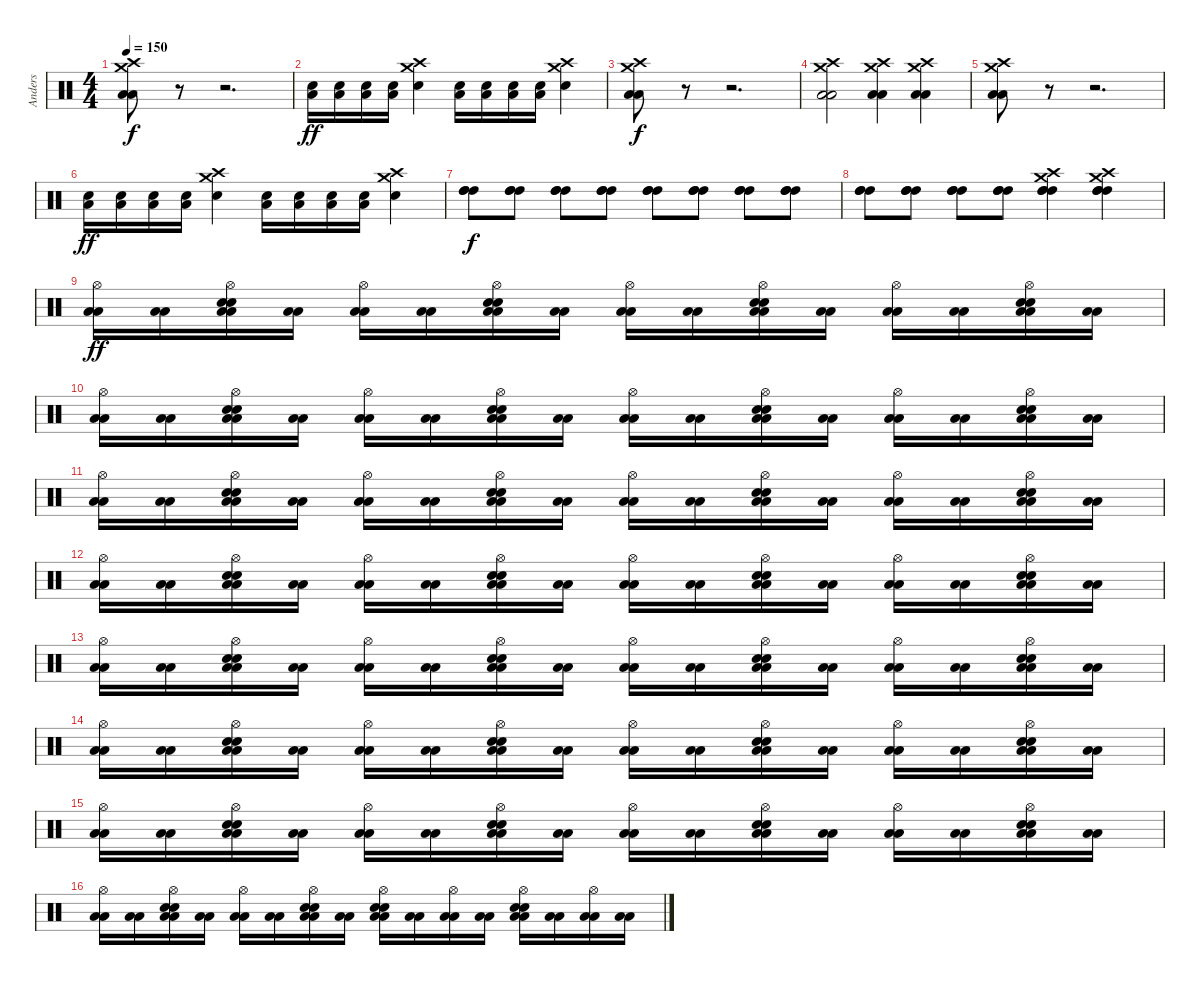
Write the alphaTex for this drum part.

\track ("Anders" "Anders") {instrument percussion}
\staff {score}
\articulation defaults
\ts (4 4)
\tempo 150
\clef neutral
\ks c
("Low Floor Tom (hit)" "Low Floor Tom (hit)" "Crash medium (hit)" "Crash high (hit)").8{dy f} r.8 r.2{d} |
("Electric Snare (hit)" "Low Floor Tom (hit)").16{dy ff} ("Electric Snare (hit)" "Low Floor Tom (hit)").16 ("Electric Snare (hit)" "Low Floor Tom (hit)").16 ("Electric Snare (hit)" "Low Floor Tom (hit)").16 ("Crash high (hit)" "Crash medium (hit)" "Electric Snare (hit)").4 ("Electric Snare (hit)" "Low Floor Tom (hit)").16 ("Electric Snare (hit)" "Low Floor Tom (hit)").16 ("Electric Snare (hit)" "Low Floor Tom (hit)").16 ("Electric Snare (hit)" "Low Floor Tom (hit)").16 ("Crash high (hit)" "Crash medium (hit)" "Electric Snare (hit)").4 |
("Low Floor Tom (hit)" "Low Floor Tom (hit)" "Crash medium (hit)" "Crash high (hit)").8{dy f} r.8 r.2{d} |
("Crash medium (hit)" "Crash high (hit)" "Low Floor Tom (hit)" "Low Floor Tom (hit)").2 ("Crash medium (hit)" "Crash high (hit)" "Low Floor Tom (hit)" "Low Floor Tom (hit)").4 ("Crash medium (hit)" "Crash high (hit)" "Low Floor Tom (hit)" "Low Floor Tom (hit)").4 |
("Low Floor Tom (hit)" "Low Floor Tom (hit)" "Crash medium (hit)" "Crash high (hit)").8 r.8 r.2{d} |
("Electric Snare (hit)" "Low Floor Tom (hit)").16{dy ff} ("Electric Snare (hit)" "Low Floor Tom (hit)").16 ("Electric Snare (hit)" "Low Floor Tom (hit)").16 ("Electric Snare (hit)" "Low Floor Tom (hit)").16 ("Crash high (hit)" "Crash medium (hit)" "Electric Snare (hit)").4 ("Electric Snare (hit)" "Low Floor Tom (hit)").16 ("Electric Snare (hit)" "Low Floor Tom (hit)").16 ("Electric Snare (hit)" "Low Floor Tom (hit)").16 ("Electric Snare (hit)" "Low Floor Tom (hit)").16 ("Crash high (hit)" "Crash medium (hit)" "Electric Snare (hit)").4 |
("High Tom (hit)" "High Tom (hit)" "High Tom (hit)").8{dy f} ("High Tom (hit)" "High Tom (hit)" "High Tom (hit)").8 ("High Tom (hit)" "High Tom (hit)" "High Tom (hit)").8 ("High Tom (hit)" "High Tom (hit)" "High Tom (hit)").8 ("High Tom (hit)" "High Tom (hit)" "High Tom (hit)").8 ("High Tom (hit)" "High Tom (hit)" "High Tom (hit)").8 ("High Tom (hit)" "High Tom (hit)" "High Tom (hit)").8 ("High Tom (hit)" "High Tom (hit)" "High Tom (hit)").8 |
("High Tom (hit)" "High Tom (hit)" "High Tom (hit)").8 ("High Tom (hit)" "High Tom (hit)" "High Tom (hit)").8 ("High Tom (hit)" "High Tom (hit)" "High Tom (hit)").8 ("High Tom (hit)" "High Tom (hit)" "High Tom (hit)").8 ("Crash high (hit)" "Crash medium (hit)" "High Tom (hit)" "High Tom (hit)" "High Tom (hit)").4 ("Crash medium (hit)" "Crash high (hit)" "High Tom (hit)" "High Tom (hit)" "High Tom (hit)").4 |
("Hi-Hat (open)" "Low Floor Tom (hit)" "Low Floor Tom (hit)").16{dy ff} ("Low Floor Tom (hit)" "Low Floor Tom (hit)").16 ("Hi-Hat (open)" "Electric Snare (hit)" "Electric Snare (hit)" "Low Floor Tom (hit)" "Low Floor Tom (hit)").16 ("Low Floor Tom (hit)" "Low Floor Tom (hit)").16 ("Hi-Hat (open)" "Low Floor Tom (hit)" "Low Floor Tom (hit)").16 ("Low Floor Tom (hit)" "Low Floor Tom (hit)").16 ("Hi-Hat (open)" "Electric Snare (hit)" "Electric Snare (hit)" "Low Floor Tom (hit)" "Low Floor Tom (hit)").16 ("Low Floor Tom (hit)" "Low Floor Tom (hit)").16 ("Hi-Hat (open)" "Low Floor Tom (hit)" "Low Floor Tom (hit)").16 ("Low Floor Tom (hit)" "Low Floor Tom (hit)").16 ("Hi-Hat (open)" "Electric Snare (hit)" "Electric Snare (hit)" "Low Floor Tom (hit)" "Low Floor Tom (hit)").16 ("Low Floor Tom (hit)" "Low Floor Tom (hit)").16 ("Hi-Hat (open)" "Low Floor Tom (hit)" "Low Floor Tom (hit)").16 ("Low Floor Tom (hit)" "Low Floor Tom (hit)").16 ("Hi-Hat (open)" "Electric Snare (hit)" "Electric Snare (hit)" "Low Floor Tom (hit)" "Low Floor Tom (hit)").16 ("Low Floor Tom (hit)" "Low Floor Tom (hit)").16 |
("Hi-Hat (open)" "Low Floor Tom (hit)" "Low Floor Tom (hit)").16 ("Low Floor Tom (hit)" "Low Floor Tom (hit)").16 ("Hi-Hat (open)" "Electric Snare (hit)" "Electric Snare (hit)" "Low Floor Tom (hit)" "Low Floor Tom (hit)").16 ("Low Floor Tom (hit)" "Low Floor Tom (hit)").16 ("Hi-Hat (open)" "Low Floor Tom (hit)" "Low Floor Tom (hit)").16 ("Low Floor Tom (hit)" "Low Floor Tom (hit)").16 ("Hi-Hat (open)" "Electric Snare (hit)" "Electric Snare (hit)" "Low Floor Tom (hit)" "Low Floor Tom (hit)").16 ("Low Floor Tom (hit)" "Low Floor Tom (hit)").16 ("Hi-Hat (open)" "Low Floor Tom (hit)" "Low Floor Tom (hit)").16 ("Low Floor Tom (hit)" "Low Floor Tom (hit)").16 ("Hi-Hat (open)" "Electric Snare (hit)" "Electric Snare (hit)" "Low Floor Tom (hit)" "Low Floor Tom (hit)").16 ("Low Floor Tom (hit)" "Low Floor Tom (hit)").16 ("Hi-Hat (open)" "Low Floor Tom (hit)" "Low Floor Tom (hit)").16 ("Low Floor Tom (hit)" "Low Floor Tom (hit)").16 ("Hi-Hat (open)" "Electric Snare (hit)" "Electric Snare (hit)" "Low Floor Tom (hit)" "Low Floor Tom (hit)").16 ("Low Floor Tom (hit)" "Low Floor Tom (hit)").16 |
("Hi-Hat (open)" "Low Floor Tom (hit)" "Low Floor Tom (hit)").16 ("Low Floor Tom (hit)" "Low Floor Tom (hit)").16 ("Hi-Hat (open)" "Electric Snare (hit)" "Electric Snare (hit)" "Low Floor Tom (hit)" "Low Floor Tom (hit)").16 ("Low Floor Tom (hit)" "Low Floor Tom (hit)").16 ("Hi-Hat (open)" "Low Floor Tom (hit)" "Low Floor Tom (hit)").16 ("Low Floor Tom (hit)" "Low Floor Tom (hit)").16 ("Hi-Hat (open)" "Electric Snare (hit)" "Electric Snare (hit)" "Low Floor Tom (hit)" "Low Floor Tom (hit)").16 ("Low Floor Tom (hit)" "Low Floor Tom (hit)").16 ("Hi-Hat (open)" "Low Floor Tom (hit)" "Low Floor Tom (hit)").16 ("Low Floor Tom (hit)" "Low Floor Tom (hit)").16 ("Hi-Hat (open)" "Electric Snare (hit)" "Electric Snare (hit)" "Low Floor Tom (hit)" "Low Floor Tom (hit)").16 ("Low Floor Tom (hit)" "Low Floor Tom (hit)").16 ("Hi-Hat (open)" "Low Floor Tom (hit)" "Low Floor Tom (hit)").16 ("Low Floor Tom (hit)" "Low Floor Tom (hit)").16 ("Hi-Hat (open)" "Electric Snare (hit)" "Electric Snare (hit)" "Low Floor Tom (hit)" "Low Floor Tom (hit)").16 ("Low Floor Tom (hit)" "Low Floor Tom (hit)").16 |
("Hi-Hat (open)" "Low Floor Tom (hit)" "Low Floor Tom (hit)").16 ("Low Floor Tom (hit)" "Low Floor Tom (hit)").16 ("Hi-Hat (open)" "Electric Snare (hit)" "Electric Snare (hit)" "Low Floor Tom (hit)" "Low Floor Tom (hit)").16 ("Low Floor Tom (hit)" "Low Floor Tom (hit)").16 ("Hi-Hat (open)" "Low Floor Tom (hit)" "Low Floor Tom (hit)").16 ("Low Floor Tom (hit)" "Low Floor Tom (hit)").16 ("Hi-Hat (open)" "Electric Snare (hit)" "Electric Snare (hit)" "Low Floor Tom (hit)" "Low Floor Tom (hit)").16 ("Low Floor Tom (hit)" "Low Floor Tom (hit)").16 ("Hi-Hat (open)" "Low Floor Tom (hit)" "Low Floor Tom (hit)").16 ("Low Floor Tom (hit)" "Low Floor Tom (hit)").16 ("Hi-Hat (open)" "Electric Snare (hit)" "Electric Snare (hit)" "Low Floor Tom (hit)" "Low Floor Tom (hit)").16 ("Low Floor Tom (hit)" "Low Floor Tom (hit)").16 ("Hi-Hat (open)" "Low Floor Tom (hit)" "Low Floor Tom (hit)").16 ("Low Floor Tom (hit)" "Low Floor Tom (hit)").16 ("Hi-Hat (open)" "Electric Snare (hit)" "Electric Snare (hit)" "Low Floor Tom (hit)" "Low Floor Tom (hit)").16 ("Low Floor Tom (hit)" "Low Floor Tom (hit)").16 |
("Hi-Hat (open)" "Low Floor Tom (hit)" "Low Floor Tom (hit)").16 ("Low Floor Tom (hit)" "Low Floor Tom (hit)").16 ("Hi-Hat (open)" "Electric Snare (hit)" "Electric Snare (hit)" "Low Floor Tom (hit)" "Low Floor Tom (hit)").16 ("Low Floor Tom (hit)" "Low Floor Tom (hit)").16 ("Hi-Hat (open)" "Low Floor Tom (hit)" "Low Floor Tom (hit)").16 ("Low Floor Tom (hit)" "Low Floor Tom (hit)").16 ("Hi-Hat (open)" "Electric Snare (hit)" "Electric Snare (hit)" "Low Floor Tom (hit)" "Low Floor Tom (hit)").16 ("Low Floor Tom (hit)" "Low Floor Tom (hit)").16 ("Hi-Hat (open)" "Low Floor Tom (hit)" "Low Floor Tom (hit)").16 ("Low Floor Tom (hit)" "Low Floor Tom (hit)").16 ("Hi-Hat (open)" "Electric Snare (hit)" "Electric Snare (hit)" "Low Floor Tom (hit)" "Low Floor Tom (hit)").16 ("Low Floor Tom (hit)" "Low Floor Tom (hit)").16 ("Hi-Hat (open)" "Low Floor Tom (hit)" "Low Floor Tom (hit)").16 ("Low Floor Tom (hit)" "Low Floor Tom (hit)").16 ("Hi-Hat (open)" "Electric Snare (hit)" "Electric Snare (hit)" "Low Floor Tom (hit)" "Low Floor Tom (hit)").16 ("Low Floor Tom (hit)" "Low Floor Tom (hit)").16 |
("Hi-Hat (open)" "Low Floor Tom (hit)" "Low Floor Tom (hit)").16 ("Low Floor Tom (hit)" "Low Floor Tom (hit)").16 ("Hi-Hat (open)" "Electric Snare (hit)" "Electric Snare (hit)" "Low Floor Tom (hit)" "Low Floor Tom (hit)").16 ("Low Floor Tom (hit)" "Low Floor Tom (hit)").16 ("Hi-Hat (open)" "Low Floor Tom (hit)" "Low Floor Tom (hit)").16 ("Low Floor Tom (hit)" "Low Floor Tom (hit)").16 ("Hi-Hat (open)" "Electric Snare (hit)" "Electric Snare (hit)" "Low Floor Tom (hit)" "Low Floor Tom (hit)").16 ("Low Floor Tom (hit)" "Low Floor Tom (hit)").16 ("Hi-Hat (open)" "Low Floor Tom (hit)" "Low Floor Tom (hit)").16 ("Low Floor Tom (hit)" "Low Floor Tom (hit)").16 ("Hi-Hat (open)" "Electric Snare (hit)" "Electric Snare (hit)" "Low Floor Tom (hit)" "Low Floor Tom (hit)").16 ("Low Floor Tom (hit)" "Low Floor Tom (hit)").16 ("Hi-Hat (open)" "Low Floor Tom (hit)" "Low Floor Tom (hit)").16 ("Low Floor Tom (hit)" "Low Floor Tom (hit)").16 ("Hi-Hat (open)" "Electric Snare (hit)" "Electric Snare (hit)" "Low Floor Tom (hit)" "Low Floor Tom (hit)").16 ("Low Floor Tom (hit)" "Low Floor Tom (hit)").16 |
("Hi-Hat (open)" "Low Floor Tom (hit)" "Low Floor Tom (hit)").16 ("Low Floor Tom (hit)" "Low Floor Tom (hit)").16 ("Hi-Hat (open)" "Electric Snare (hit)" "Electric Snare (hit)" "Low Floor Tom (hit)" "Low Floor Tom (hit)").16 ("Low Floor Tom (hit)" "Low Floor Tom (hit)").16 ("Hi-Hat (open)" "Low Floor Tom (hit)" "Low Floor Tom (hit)").16 ("Low Floor Tom (hit)" "Low Floor Tom (hit)").16 ("Hi-Hat (open)" "Electric Snare (hit)" "Electric Snare (hit)" "Low Floor Tom (hit)" "Low Floor Tom (hit)").16 ("Low Floor Tom (hit)" "Low Floor Tom (hit)").16 ("Hi-Hat (open)" "Low Floor Tom (hit)" "Low Floor Tom (hit)").16 ("Low Floor Tom (hit)" "Low Floor Tom (hit)").16 ("Hi-Hat (open)" "Electric Snare (hit)" "Electric Snare (hit)" "Low Floor Tom (hit)" "Low Floor Tom (hit)").16 ("Low Floor Tom (hit)" "Low Floor Tom (hit)").16 ("Hi-Hat (open)" "Low Floor Tom (hit)" "Low Floor Tom (hit)").16 ("Low Floor Tom (hit)" "Low Floor Tom (hit)").16 ("Hi-Hat (open)" "Electric Snare (hit)" "Electric Snare (hit)" "Low Floor Tom (hit)" "Low Floor Tom (hit)").16 ("Low Floor Tom (hit)" "Low Floor Tom (hit)").16 |
("Hi-Hat (open)" "Low Floor Tom (hit)" "Low Floor Tom (hit)").16 ("Low Floor Tom (hit)" "Low Floor Tom (hit)").16 ("Hi-Hat (open)" "Electric Snare (hit)" "Electric Snare (hit)" "Low Floor Tom (hit)" "Low Floor Tom (hit)").16 ("Low Floor Tom (hit)" "Low Floor Tom (hit)").16 ("Hi-Hat (open)" "Low Floor Tom (hit)" "Low Floor Tom (hit)").16 ("Low Floor Tom (hit)" "Low Floor Tom (hit)").16 ("Hi-Hat (open)" "Electric Snare (hit)" "Electric Snare (hit)" "Low Floor Tom (hit)" "Low Floor Tom (hit)").16 ("Low Floor Tom (hit)" "Low Floor Tom (hit)").16 ("Hi-Hat (open)" "Electric Snare (hit)" "Electric Snare (hit)" "Low Floor Tom (hit)" "Low Floor Tom (hit)").16 ("Low Floor Tom (hit)" "Low Floor Tom (hit)").16 ("Hi-Hat (open)" "Low Floor Tom (hit)" "Low Floor Tom (hit)").16 ("Low Floor Tom (hit)" "Low Floor Tom (hit)").16 ("Hi-Hat (open)" "Electric Snare (hit)" "Electric Snare (hit)" "Low Floor Tom (hit)" "Low Floor Tom (hit)").16 ("Low Floor Tom (hit)" "Low Floor Tom (hit)").16 ("Hi-Hat (open)" "Low Floor Tom (hit)" "Low Floor Tom (hit)").16 ("Low Floor Tom (hit)" "Low Floor Tom (hit)").16
